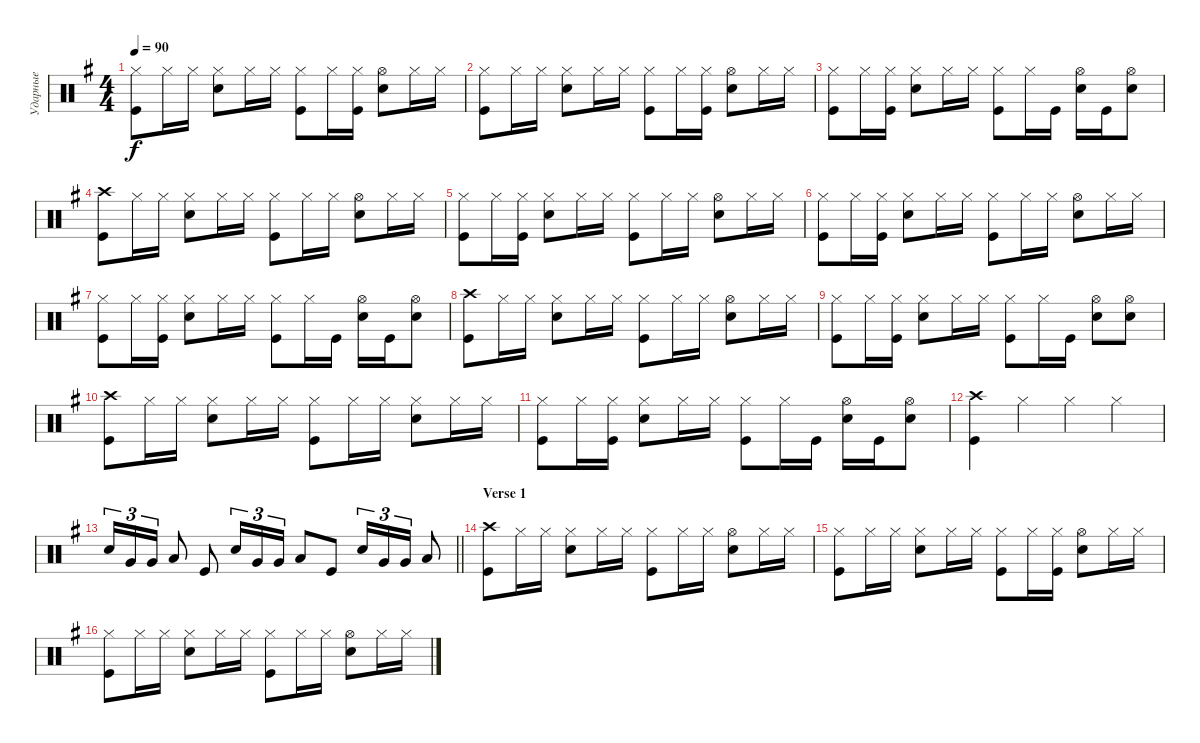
\track ("Ударные" "Ударные") {instrument percussion}
\staff {score}
\articulation defaults
\ts (4 4)
\tempo 90
\clef neutral
\ks eminor
("Kick (hit)" "Hi-Hat (closed)").8{dy f} "Hi-Hat (closed)".16 "Hi-Hat (closed)".16 ("Snare (hit) 2" "Hi-Hat (closed)").8 "Hi-Hat (closed)".16 "Hi-Hat (closed)".16 ("Hi-Hat (closed)" "Kick (hit)").8 "Hi-Hat (closed)".16 ("Hi-Hat (closed)" "Kick (hit)").16 ("Snare (hit) 2" "Hi-Hat (open)").8 "Hi-Hat (closed)".16 "Hi-Hat (closed)".16 |
("Kick (hit)" "Hi-Hat (closed)").8 "Hi-Hat (closed)".16 "Hi-Hat (closed)".16 ("Snare (hit) 2" "Hi-Hat (closed)").8 "Hi-Hat (closed)".16 "Hi-Hat (closed)".16 ("Hi-Hat (closed)" "Kick (hit)").8 "Hi-Hat (closed)".16 ("Hi-Hat (closed)" "Kick (hit)").16 ("Snare (hit) 2" "Hi-Hat (open)").8 "Hi-Hat (closed)".16 "Hi-Hat (closed)".16 |
("Kick (hit)" "Hi-Hat (closed)").8 "Hi-Hat (closed)".16 ("Hi-Hat (closed)" "Kick (hit)").16 ("Snare (hit) 2" "Hi-Hat (closed)").8 "Hi-Hat (closed)".16 "Hi-Hat (closed)".16 ("Hi-Hat (closed)" "Kick (hit)").8 "Hi-Hat (closed)".16 "Kick (hit)".16 ("Hi-Hat (open)" "Snare (hit) 2").16 "Kick (hit)".16 ("Hi-Hat (open)" "Snare (hit) 2").8 |
("Kick (hit)" "Crash high (hit)").8 "Hi-Hat (closed)".16 "Hi-Hat (closed)".16 ("Snare (hit) 2" "Hi-Hat (closed)").8 "Hi-Hat (closed)".16 "Hi-Hat (closed)".16 ("Hi-Hat (closed)" "Kick (hit)").8 "Hi-Hat (closed)".16 "Hi-Hat (closed)".16 ("Snare (hit) 2" "Hi-Hat (open)").8 "Hi-Hat (closed)".16 "Hi-Hat (closed)".16 |
("Kick (hit)" "Hi-Hat (closed)").8 "Hi-Hat (closed)".16 ("Hi-Hat (closed)" "Kick (hit)").16 ("Snare (hit) 2" "Hi-Hat (closed)").8 "Hi-Hat (closed)".16 "Hi-Hat (closed)".16 ("Hi-Hat (closed)" "Kick (hit)").8 "Hi-Hat (closed)".16 "Hi-Hat (closed)".16 ("Snare (hit) 2" "Hi-Hat (open)").8 "Hi-Hat (closed)".16 "Hi-Hat (closed)".16 |
("Kick (hit)" "Hi-Hat (closed)").8 "Hi-Hat (closed)".16 ("Hi-Hat (closed)" "Kick (hit)").16 ("Snare (hit) 2" "Hi-Hat (closed)").8 "Hi-Hat (closed)".16 "Hi-Hat (closed)".16 ("Hi-Hat (closed)" "Kick (hit)").8 "Hi-Hat (closed)".16 "Hi-Hat (closed)".16 ("Snare (hit) 2" "Hi-Hat (open)").8 "Hi-Hat (closed)".16 "Hi-Hat (closed)".16 |
("Kick (hit)" "Hi-Hat (closed)").8 "Hi-Hat (closed)".16 ("Hi-Hat (closed)" "Kick (hit)").16 ("Snare (hit) 2" "Hi-Hat (closed)").8 "Hi-Hat (closed)".16 "Hi-Hat (closed)".16 ("Hi-Hat (closed)" "Kick (hit)").8 "Hi-Hat (closed)".16 "Kick (hit)".16 ("Hi-Hat (open)" "Snare (hit) 2").16 "Kick (hit)".16 ("Hi-Hat (open)" "Snare (hit) 2").8 |
("Kick (hit)" "Crash high (hit)").8 "Hi-Hat (closed)".16 "Hi-Hat (closed)".16 ("Snare (hit) 2" "Hi-Hat (closed)").8 "Hi-Hat (closed)".16 "Hi-Hat (closed)".16 ("Hi-Hat (closed)" "Kick (hit)").8 "Hi-Hat (closed)".16 "Hi-Hat (closed)".16 ("Snare (hit) 2" "Hi-Hat (open)").8 "Hi-Hat (closed)".16 "Hi-Hat (closed)".16 |
("Kick (hit)" "Hi-Hat (closed)").8 "Hi-Hat (closed)".16 ("Hi-Hat (closed)" "Kick (hit)").16 ("Snare (hit) 2" "Hi-Hat (closed)").8 "Hi-Hat (closed)".16 "Hi-Hat (closed)".16 ("Hi-Hat (closed)" "Kick (hit)").8 "Hi-Hat (closed)".16 "Kick (hit)".16 ("Snare (hit) 2" "Hi-Hat (open)").8 ("Snare (hit) 2" "Hi-Hat (open)").8 |
("Kick (hit)" "Crash high (hit)").8 "Hi-Hat (closed)".16 "Hi-Hat (closed)".16 ("Snare (hit) 2" "Hi-Hat (closed)").8 "Hi-Hat (closed)".16 "Hi-Hat (closed)".16 ("Hi-Hat (closed)" "Kick (hit)").8 "Hi-Hat (closed)".16 "Hi-Hat (closed)".16 ("Hi-Hat (closed)" "Snare (hit) 2").8 "Hi-Hat (closed)".16 "Hi-Hat (closed)".16 |
("Kick (hit)" "Hi-Hat (closed)").8 "Hi-Hat (closed)".16 ("Hi-Hat (closed)" "Kick (hit)").16 ("Snare (hit) 2" "Hi-Hat (closed)").8 "Hi-Hat (closed)".16 "Hi-Hat (closed)".16 ("Hi-Hat (closed)" "Kick (hit)").8 "Hi-Hat (closed)".16 "Kick (hit)".16 ("Hi-Hat (open)" "Snare (hit) 2").16 "Kick (hit)".16 ("Hi-Hat (open)" "Snare (hit) 2").8 |
("Kick (hit)" "Crash high (hit)").4 "Hi-Hat (closed)".4 "Hi-Hat (closed)".4 "Hi-Hat (closed)".4 |
\barLineRight lightlight "Snare (hit) 2".16{tu (3 2)} "Very Low Tom (hit)".16{tu (3 2)} "Very Low Tom (hit)".16{tu (3 2)} "Low Floor Tom (hit)".8 "Kick (hit)".8 "Snare (hit) 2".16{tu (3 2)} "Very Low Tom (hit)".16{tu (3 2)} "Very Low Tom (hit)".16{tu (3 2)} "Low Floor Tom (hit)".8 "Kick (hit)".8 "Snare (hit) 2".16{tu (3 2)} "Very Low Tom (hit)".16{tu (3 2)} "Very Low Tom (hit)".16{tu (3 2)} "Low Floor Tom (hit)".8
|
\section ("" "Verse 1")
("Crash high (hit)" "Kick (hit)").8 "Hi-Hat (closed)".16 "Hi-Hat (closed)".16 ("Hi-Hat (closed)" "Snare (hit) 2").8 "Hi-Hat (closed)".16 "Hi-Hat (closed)".16 ("Hi-Hat (closed)" "Kick (hit)").8 "Hi-Hat (closed)".16 "Hi-Hat (closed)".16 ("Snare (hit) 2" "Hi-Hat (open)").8 "Hi-Hat (closed)".16 "Hi-Hat (closed)".16 |
("Hi-Hat (closed)" "Kick (hit)").8 "Hi-Hat (closed)".16 "Hi-Hat (closed)".16 ("Hi-Hat (closed)" "Snare (hit) 2").8 "Hi-Hat (closed)".16 "Hi-Hat (closed)".16 ("Hi-Hat (closed)" "Kick (hit)").8 "Hi-Hat (closed)".16 ("Hi-Hat (closed)" "Kick (hit)").16 ("Snare (hit) 2" "Hi-Hat (open)").8 "Hi-Hat (closed)".16 "Hi-Hat (closed)".16 |
("Hi-Hat (closed)" "Kick (hit)").8 "Hi-Hat (closed)".16 "Hi-Hat (closed)".16 ("Hi-Hat (closed)" "Snare (hit) 2").8 "Hi-Hat (closed)".16 "Hi-Hat (closed)".16 ("Hi-Hat (closed)" "Kick (hit)").8 "Hi-Hat (closed)".16 "Hi-Hat (closed)".16 ("Snare (hit) 2" "Hi-Hat (open)").8 "Hi-Hat (closed)".16 "Hi-Hat (closed)".16
